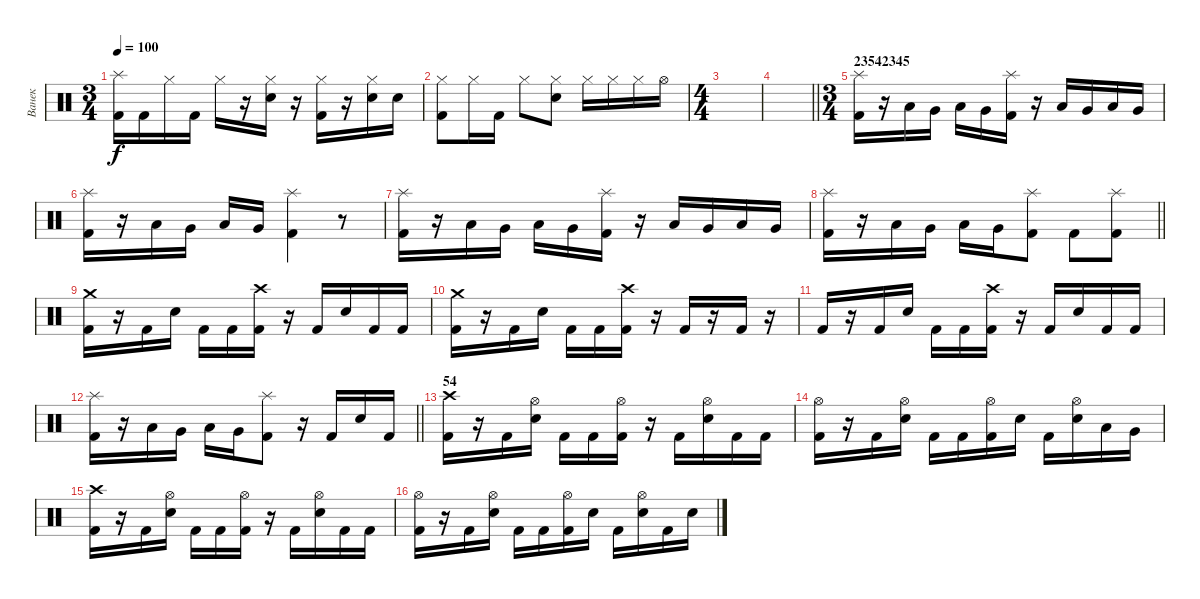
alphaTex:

\track ("Ванек" "Ванек") {instrument percussion}
\staff {score}
\articulation defaults
\ts (3 4)
\tempo 100
\clef neutral
\ks c
("Splash (hit)" "Kick (hit) 2").16{dy f} "Kick (hit) 2".16 "Hi-Hat (closed)".16 "Kick (hit) 2".16 "Hi-Hat (closed)".16 r.16 ("Hi-Hat (closed)" "Snare (hit) 2").16 r.16 ("Hi-Hat (closed)" "Kick (hit) 2").16 r.16 ("Hi-Hat (closed)" "Snare (hit) 2").16 "Snare (hit) 2".16 |
("Hi-Hat (closed)" "Kick (hit) 2").8 "Hi-Hat (closed)".16 "Kick (hit) 2".16 "Hi-Hat (closed)".8 ("Hi-Hat (closed)" "Snare (hit) 2").8 "Hi-Hat (closed)".16 "Hi-Hat (closed)".16 "Hi-Hat (closed)".16 "Hi-Hat (open)".16 |
\ts (4 4)
|
\barLineRight lightlight
|
\ts (3 4)
\section ("" "23542345")
("Splash (hit)" "Kick (hit) 2").16 r.16 "Low Tom (hit)".16 "Very Low Tom (hit)".16 "Low Floor Tom (hit)".16 "Very Low Tom (hit)".16 ("Splash (hit)" "Kick (hit) 2").16 r.16 "Low Tom (hit)".16 "Very Low Tom (hit)".16 "Low Floor Tom (hit)".16 "Very Low Tom (hit)".16 |
("Splash (hit)" "Kick (hit) 2").16 r.16 "Low Tom (hit)".16 "Very Low Tom (hit)".16 "Low Floor Tom (hit)".16 "Very Low Tom (hit)".16 ("Splash (hit)" "Kick (hit) 2").4 r.8 |
("Splash (hit)" "Kick (hit) 2").16 r.16 "Low Tom (hit)".16 "Very Low Tom (hit)".16 "Low Floor Tom (hit)".16 "Very Low Tom (hit)".16 ("Splash (hit)" "Kick (hit) 2").16 r.16 "Low Tom (hit)".16 "Very Low Tom (hit)".16 "Low Floor Tom (hit)".16 "Very Low Tom (hit)".16 |
\barLineRight lightlight
("Splash (hit)" "Kick (hit) 2").16 r.16 "Low Tom (hit)".16 "Very Low Tom (hit)".16 "Low Floor Tom (hit)".16 "Very Low Tom (hit)".16 ("Splash (hit)" "Kick (hit) 2").8 "Kick (hit) 2".8 ("Splash (hit)" "Kick (hit) 2").8 |
("Crash medium (hit)" "Kick (hit) 2").16 r.16 "Kick (hit) 2".16 "Snare (hit) 2".16 "Kick (hit) 2".16 "Kick (hit) 2".16 ("Crash high (hit)" "Kick (hit) 2").16 r.16 "Kick (hit) 2".16 "Snare (hit) 2".16 "Kick (hit) 2".16 "Kick (hit) 2".16 |
("Crash medium (hit)" "Kick (hit) 2").16 r.16 "Kick (hit) 2".16 "Snare (hit) 2".16 "Kick (hit) 2".16 "Kick (hit) 2".16 ("Crash high (hit)" "Kick (hit) 2").16 r.16 "Kick (hit) 2".16 r.16 "Kick (hit) 2".16 r.16 |
"Kick (hit) 2".16 r.16 "Kick (hit) 2".16 "Snare (hit) 2".16 "Kick (hit) 2".16 "Kick (hit) 2".16 ("Crash high (hit)" "Kick (hit) 2").16 r.16 "Kick (hit) 2".16 "Snare (hit) 2".16 "Kick (hit) 2".16 "Kick (hit) 2".16 |
\barLineRight lightlight
("Splash (hit)" "Kick (hit) 2").16 r.16 "Low Tom (hit)".16 "Very Low Tom (hit)".16 "Low Floor Tom (hit)".16 "Very Low Tom (hit)".16 ("Splash (hit)" "Kick (hit) 2").8 r.16 "Kick (hit) 2".16 "Snare (hit) 2".16 "Kick (hit) 2".16 |
\section ("" "54")
("Crash high (hit)" "Kick (hit) 2").16 r.16 "Kick (hit) 2".16 ("Hi-Hat (open)" "Snare (hit) 2").16 "Kick (hit) 2".16 "Kick (hit) 2".16 ("Hi-Hat (open)" "Kick (hit) 2").16 r.16 "Kick (hit) 2".16 ("Hi-Hat (open)" "Snare (hit) 2").16 "Kick (hit) 2".16 "Kick (hit) 2".16 |
("Hi-Hat (open)" "Kick (hit) 2").16 r.16 "Kick (hit) 2".16 ("Hi-Hat (open)" "Snare (hit) 2").16 "Kick (hit) 2".16 "Kick (hit) 2".16 ("Hi-Hat (open)" "Kick (hit) 2").16 "Snare (hit) 2".16 "Kick (hit) 2".16 ("Hi-Hat (open)" "Snare (hit) 2").16 "Low Floor Tom (hit)".16 "Very Low Tom (hit)".16 |
("Crash high (hit)" "Kick (hit) 2").16 r.16 "Kick (hit) 2".16 ("Hi-Hat (open)" "Snare (hit) 2").16 "Kick (hit) 2".16 "Kick (hit) 2".16 ("Hi-Hat (open)" "Kick (hit) 2").16 r.16 "Kick (hit) 2".16 ("Hi-Hat (open)" "Snare (hit) 2").16 "Kick (hit) 2".16 "Kick (hit) 2".16 |
("Hi-Hat (open)" "Kick (hit) 2").16 r.16 "Kick (hit) 2".16 ("Hi-Hat (open)" "Snare (hit) 2").16 "Kick (hit) 2".16 "Kick (hit) 2".16 ("Hi-Hat (open)" "Kick (hit) 2").16 "Snare (hit) 2".16 "Kick (hit) 2".16 ("Hi-Hat (open)" "Snare (hit) 2").16 "Kick (hit) 2".16 "Snare (hit) 2".16
